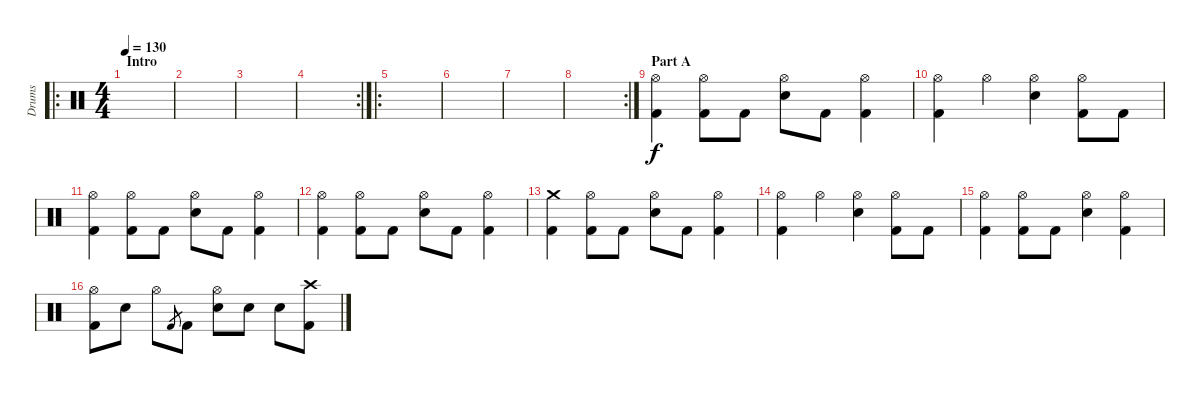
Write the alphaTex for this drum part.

\track ("Drums" "Drums") {instrument percussion}
\staff {score}
\articulation defaults
\ro
\ts (4 4)
\section ("" "Intro")
\tempo 130
\clef neutral
\ks c
|
|
|
\rc 2
|
\ro
|
|
|
\rc 2
|
\section ("" "Part A")
("Hi-Hat (open)" "Kick (hit) 2").4 ("Hi-Hat (open)" "Kick (hit) 2").8 "Kick (hit) 2".8 ("Hi-Hat (open)" "Electric Snare (hit)").8 "Kick (hit) 2".8 ("Hi-Hat (open)" "Kick (hit) 2").4 |
("Hi-Hat (open)" "Kick (hit) 2").4 "Hi-Hat (open)".4 ("Hi-Hat (open)" "Electric Snare (hit)").4 ("Hi-Hat (open)" "Kick (hit) 2").8 "Kick (hit) 2".8 |
("Hi-Hat (open)" "Kick (hit) 2").4 ("Hi-Hat (open)" "Kick (hit) 2").8 "Kick (hit) 2".8 ("Hi-Hat (open)" "Electric Snare (hit)").8 "Kick (hit) 2".8 ("Hi-Hat (open)" "Kick (hit) 2").4 |
("Hi-Hat (open)" "Kick (hit) 2").4 ("Hi-Hat (open)" "Kick (hit) 2").8 "Kick (hit) 2".8 ("Hi-Hat (open)" "Electric Snare (hit)").8 "Kick (hit) 2".8 ("Hi-Hat (open)" "Kick (hit) 2").4 |
("Crash medium (hit)" "Kick (hit) 2").4 ("Hi-Hat (open)" "Kick (hit) 2").8 "Kick (hit) 2".8 ("Hi-Hat (open)" "Electric Snare (hit)").8 "Kick (hit) 2".8 ("Hi-Hat (open)" "Kick (hit) 2").4 |
("Hi-Hat (open)" "Kick (hit) 2").4 "Hi-Hat (open)".4 ("Hi-Hat (open)" "Electric Snare (hit)").4 ("Hi-Hat (open)" "Kick (hit) 2").8 "Kick (hit) 2".8 |
("Hi-Hat (open)" "Kick (hit) 2").4 ("Hi-Hat (open)" "Kick (hit) 2").8 "Kick (hit) 2".8 ("Hi-Hat (open)" "Electric Snare (hit)").4 ("Hi-Hat (open)" "Kick (hit) 2").4 |
("Hi-Hat (open)" "Kick (hit) 2").8 "Electric Snare (hit)".8 "Hi-Hat (open)".8 "Kick (hit) 2".8{gr} "Kick (hit) 2".8 ("Hi-Hat (open)" "Electric Snare (hit)").8 "Electric Snare (hit)".8 "Electric Snare (hit)".8 ("Crash high (hit)" "Kick (hit) 2").8
